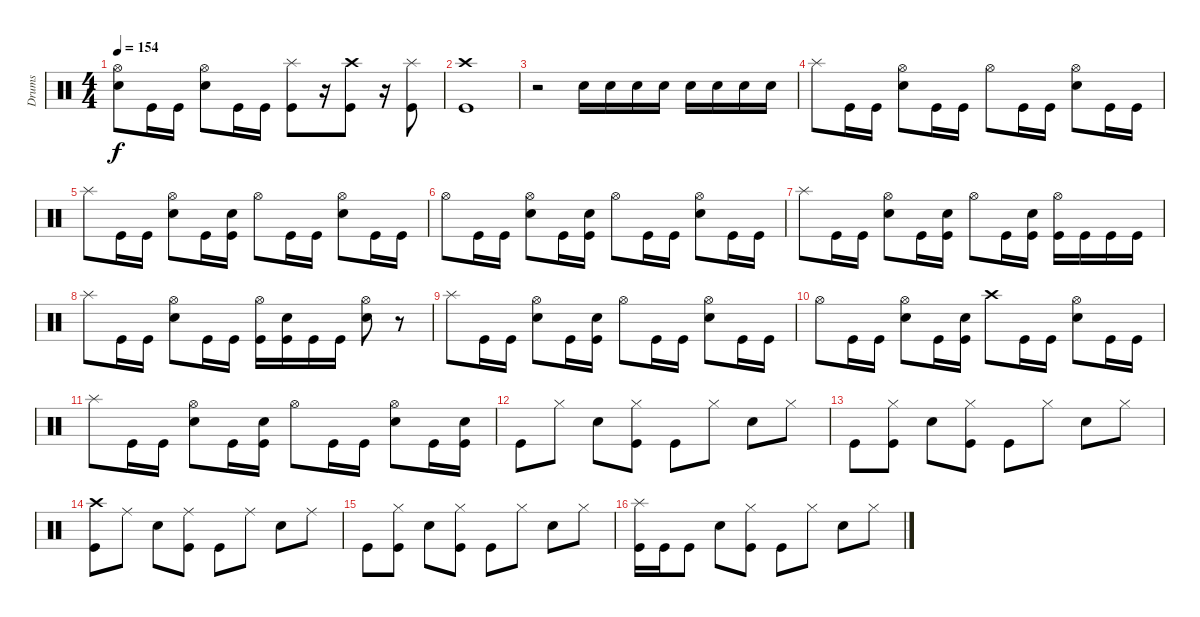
\track ("Drums" "Drums") {instrument percussion}
\staff {score}
\articulation defaults
\ts (4 4)
\tempo 154
\clef neutral
\ks c
("Hi-Hat (open)" "Snare (hit) 2").8{dy f} "Kick (hit)".16 "Kick (hit)".16 ("Hi-Hat (open)" "Snare (hit) 2").8 "Kick (hit)".16 "Kick (hit)".16 ("Splash (hit)" "Kick (hit)").8 r.16 ("Crash high (hit)" "Kick (hit)").8 r.16 ("Splash (hit)" "Kick (hit)").8 |
("Crash high (hit)" "Kick (hit)").1 |
r.2 "Snare (hit) 2".16 "Snare (hit) 2".16 "Snare (hit) 2".16 "Snare (hit) 2".16 "Snare (hit) 2".16 "Snare (hit) 2".16 "Snare (hit) 2".16 "Snare (hit) 2".16 |
"Splash (hit)".8 "Kick (hit)".16 "Kick (hit)".16 ("Hi-Hat (open)" "Snare (hit) 2").8 "Kick (hit)".16 "Kick (hit)".16 "Hi-Hat (open)".8 "Kick (hit)".16 "Kick (hit)".16 ("Hi-Hat (open)" "Snare (hit) 2").8 "Kick (hit)".16 "Kick (hit)".16 |
"Splash (hit)".8 "Kick (hit)".16 "Kick (hit)".16 ("Hi-Hat (open)" "Snare (hit) 2").8 "Kick (hit)".16 ("Snare (hit) 2" "Kick (hit)").16 "Hi-Hat (open)".8 "Kick (hit)".16 "Kick (hit)".16 ("Hi-Hat (open)" "Snare (hit) 2").8 "Kick (hit)".16 "Kick (hit)".16 |
"Hi-Hat (open)".8 "Kick (hit)".16 "Kick (hit)".16 ("Hi-Hat (open)" "Snare (hit) 2").8 "Kick (hit)".16 ("Snare (hit) 2" "Kick (hit)").16 "Hi-Hat (open)".8 "Kick (hit)".16 "Kick (hit)".16 ("Hi-Hat (open)" "Snare (hit) 2").8 "Kick (hit)".16 "Kick (hit)".16 |
"Splash (hit)".8 "Kick (hit)".16 "Kick (hit)".16 ("Hi-Hat (open)" "Snare (hit) 2").8 "Kick (hit)".16 ("Snare (hit) 2" "Kick (hit)").16 "Hi-Hat (open)".8 "Kick (hit)".16 ("Snare (hit) 2" "Kick (hit)").16 ("Hi-Hat (open)" "Kick (hit)").16 "Kick (hit)".16 "Kick (hit)".16 "Kick (hit)".16 |
"Splash (hit)".8 "Kick (hit)".16 "Kick (hit)".16 ("Hi-Hat (open)" "Snare (hit) 2").8 "Kick (hit)".16 "Kick (hit)".16 ("Hi-Hat (open)" "Kick (hit)").16 ("Snare (hit) 2" "Kick (hit)").16 "Kick (hit)".16 "Kick (hit)".16 ("Hi-Hat (open)" "Snare (hit) 2").8 r.8 |
"Splash (hit)".8 "Kick (hit)".16 "Kick (hit)".16 ("Hi-Hat (open)" "Snare (hit) 2").8 "Kick (hit)".16 ("Snare (hit) 2" "Kick (hit)").16 "Hi-Hat (open)".8 "Kick (hit)".16 "Kick (hit)".16 ("Hi-Hat (open)" "Snare (hit) 2").8 "Kick (hit)".16 "Kick (hit)".16 |
"Hi-Hat (open)".8 "Kick (hit)".16 "Kick (hit)".16 ("Hi-Hat (open)" "Snare (hit) 2").8 "Kick (hit)".16 ("Snare (hit) 2" "Kick (hit)").16 "Crash high (hit)".8 "Kick (hit)".16 "Kick (hit)".16 ("Hi-Hat (open)" "Snare (hit) 2").8 "Kick (hit)".16 "Kick (hit)".16 |
"Splash (hit)".8 "Kick (hit)".16 "Kick (hit)".16 ("Hi-Hat (open)" "Snare (hit) 2").8 "Kick (hit)".16 ("Snare (hit) 2" "Kick (hit)").16 "Hi-Hat (open)".8 "Kick (hit)".16 "Kick (hit)".16 ("Hi-Hat (open)" "Snare (hit) 2").8 "Kick (hit)".16 ("Snare (hit) 2" "Kick (hit)").16 |
"Kick (hit)".8 "Hi-Hat (closed)".8 "Snare (hit) 2".8 ("Hi-Hat (closed)" "Kick (hit)").8 "Kick (hit)".8 "Hi-Hat (closed)".8 "Snare (hit) 2".8 "Hi-Hat (closed)".8 |
"Kick (hit)".8 ("Hi-Hat (closed)" "Kick (hit)").8 "Snare (hit) 2".8 ("Hi-Hat (closed)" "Kick (hit)").8 "Kick (hit)".8 "Hi-Hat (closed)".8 "Snare (hit) 2".8 "Hi-Hat (closed)".8 |
("Crash high (hit)" "Kick (hit)").8 "Ride (middle)".8 "Snare (hit) 2".8 ("Ride (middle)" "Kick (hit)").8 "Kick (hit)".8 "Ride (middle)".8 "Snare (hit) 2".8 "Ride (middle)".8 |
"Kick (hit)".8 ("Hi-Hat (closed)" "Kick (hit)").8 "Snare (hit) 2".8 ("Hi-Hat (closed)" "Kick (hit)").8 "Kick (hit)".8 "Hi-Hat (closed)".8 "Snare (hit) 2".8 "Hi-Hat (closed)".8 |
("Splash (hit)" "Kick (hit)").16 "Kick (hit)".16 "Kick (hit)".8 "Snare (hit) 2".8 ("Hi-Hat (closed)" "Kick (hit)").8 "Kick (hit)".8 "Hi-Hat (closed)".8 "Snare (hit) 2".8 "Hi-Hat (closed)".8
